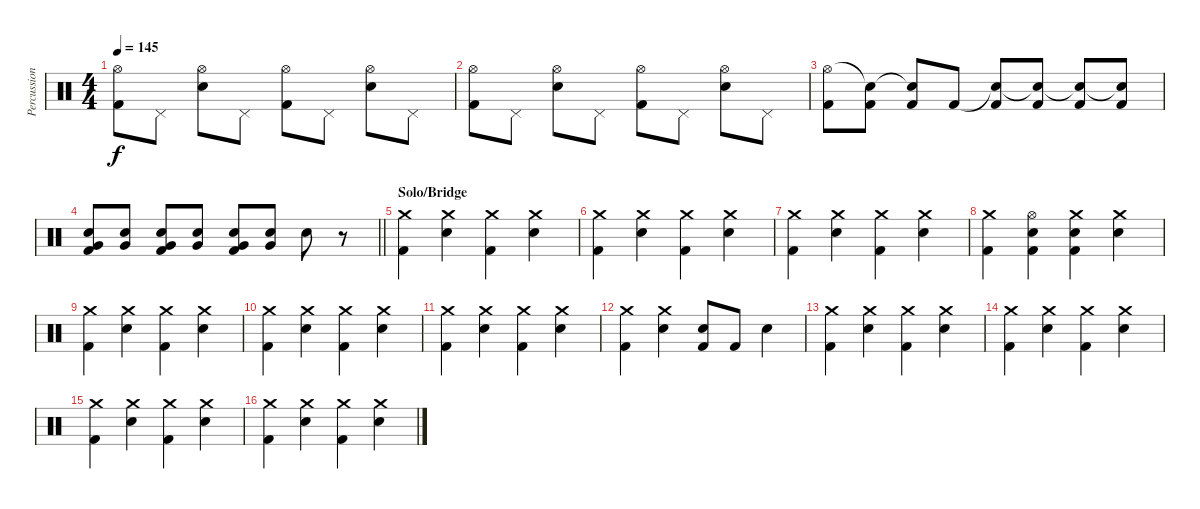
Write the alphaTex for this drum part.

\track ("Percussion" "Percussion") {instrument percussion}
\staff {score}
\articulation defaults
\ts (4 4)
\tempo 145
\clef neutral
\ks c
("Hi-Hat (open)" "Kick (hit) 2").8{dy f} "Pedal Hi-Hat (hit)".8 ("Hi-Hat (open)" "Snare (hit) 2").8 "Pedal Hi-Hat (hit)".8 ("Hi-Hat (open)" "Kick (hit) 2").8 "Pedal Hi-Hat (hit)".8 ("Hi-Hat (open)" "Snare (hit) 2").8 "Pedal Hi-Hat (hit)".8 |
("Hi-Hat (open)" "Kick (hit) 2").8 "Pedal Hi-Hat (hit)".8 ("Hi-Hat (open)" "Snare (hit) 2").8 "Pedal Hi-Hat (hit)".8 ("Hi-Hat (open)" "Kick (hit) 2").8 "Pedal Hi-Hat (hit)".8 ("Hi-Hat (open)" "Snare (hit) 2").8 "Pedal Hi-Hat (hit)".8 |
("Hi-Hat (open)" "Kick (hit) 2").8 ("Snare (hit)"{t} "Kick (hit) 2").8 ("Snare (hit)"{t} "Kick (hit) 2").8 "Kick (hit) 2".8 ("Snare (hit)"{t} "Kick (hit) 2").8 ("Snare (hit)"{t} "Kick (hit) 2").8 ("Snare (hit)"{t} "Kick (hit) 2").8 ("Snare (hit)"{t} "Kick (hit) 2").8 |
\barLineRight lightlight
("Very Low Tom (hit)" "Snare (hit) 2" "Kick (hit) 2").8 ("Very Low Tom (hit)" "Snare (hit) 2").8 ("Very Low Tom (hit)" "Snare (hit) 2" "Kick (hit) 2").8 ("Very Low Tom (hit)" "Snare (hit) 2").8 ("Very Low Tom (hit)" "Snare (hit) 2" "Kick (hit) 2").8 ("Very Low Tom (hit)" "Snare (hit) 2").8 "Snare (hit) 2".8 r.8 |
\section ("" "Solo/Bridge")
("Crash medium (hit)" "Kick (hit) 2").4 ("Crash medium (hit)" "Snare (hit) 2").4 ("Crash medium (hit)" "Kick (hit) 2").4 ("Crash medium (hit)" "Snare (hit) 2").4 |
("Crash medium (hit)" "Kick (hit) 2").4 ("Crash medium (hit)" "Snare (hit) 2").4 ("Crash medium (hit)" "Kick (hit) 2").4 ("Crash medium (hit)" "Snare (hit) 2").4 |
("Crash medium (hit)" "Kick (hit) 2").4 ("Crash medium (hit)" "Snare (hit) 2").4 ("Crash medium (hit)" "Kick (hit) 2").4 ("Crash medium (hit)" "Snare (hit) 2").4 |
("Crash medium (hit)" "Kick (hit) 2").4 ("Hi-Hat (open)" "Snare (hit) 2" "Kick (hit) 2").4 ("Crash medium (hit)" "Snare (hit) 2" "Kick (hit) 2").4 ("Crash medium (hit)" "Snare (hit) 2").4 |
("Crash medium (hit)" "Kick (hit) 2").4 ("Crash medium (hit)" "Snare (hit) 2").4 ("Crash medium (hit)" "Kick (hit) 2").4 ("Crash medium (hit)" "Snare (hit) 2").4 |
("Crash medium (hit)" "Kick (hit) 2").4 ("Crash medium (hit)" "Snare (hit) 2").4 ("Crash medium (hit)" "Kick (hit) 2").4 ("Crash medium (hit)" "Snare (hit) 2").4 |
("Crash medium (hit)" "Kick (hit) 2").4 ("Crash medium (hit)" "Snare (hit) 2").4 ("Crash medium (hit)" "Kick (hit) 2").4 ("Crash medium (hit)" "Snare (hit) 2").4 |
("Crash medium (hit)" "Kick (hit) 2").4 ("Crash medium (hit)" "Snare (hit) 2").4 ("Snare (hit) 2" "Kick (hit) 2").8 "Kick (hit) 2".8 "Snare (hit) 2".4 |
("Crash medium (hit)" "Kick (hit) 2").4 ("Crash medium (hit)" "Snare (hit) 2").4 ("Crash medium (hit)" "Kick (hit) 2").4 ("Crash medium (hit)" "Snare (hit) 2").4 |
("Crash medium (hit)" "Kick (hit) 2").4 ("Crash medium (hit)" "Snare (hit) 2").4 ("Crash medium (hit)" "Kick (hit) 2").4 ("Crash medium (hit)" "Snare (hit) 2").4 |
("Crash medium (hit)" "Kick (hit) 2").4 ("Crash medium (hit)" "Snare (hit) 2").4 ("Crash medium (hit)" "Kick (hit) 2").4 ("Crash medium (hit)" "Snare (hit) 2").4 |
("Crash medium (hit)" "Kick (hit) 2").4 ("Crash medium (hit)" "Snare (hit) 2").4 ("Crash medium (hit)" "Kick (hit) 2").4 ("Crash medium (hit)" "Snare (hit) 2").4
